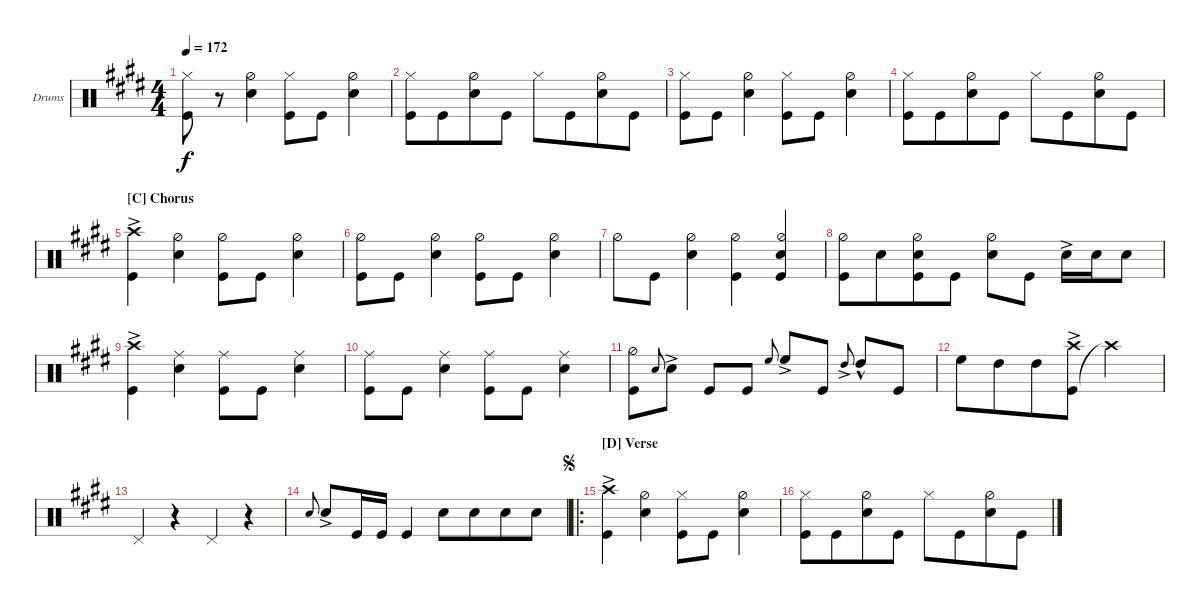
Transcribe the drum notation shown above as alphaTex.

\bracketExtendMode groupsimilarinstruments
\firstSystemTrackNameOrientation horizontal
\otherSystemsTrackNameOrientation horizontal
\track ("Drums" "Drums") {instrument percussion}
\staff {score}
\articulation defaults
\ts (4 4)
\tempo 172
\clef neutral
\ks e
("Hi-Hat (closed)" "Kick (hit)").8{dy f} r.8 ("Hi-Hat (half)" "Snare (hit) 2").4 ("Kick (hit)" "Hi-Hat (closed)").8 "Kick (hit)".8{beam merge} ("Hi-Hat (half)" "Snare (hit) 2").4 |
("Hi-Hat (closed)" "Kick (hit)").8 "Kick (hit)".8{beam merge} ("Hi-Hat (half)" "Snare (hit) 2").8 "Kick (hit)".8 "Hi-Hat (closed)".8 "Kick (hit)".8{beam merge} ("Hi-Hat (half)" "Snare (hit) 2").8 "Kick (hit)".8 |
("Hi-Hat (closed)" "Kick (hit)").8 "Kick (hit)".8{beam merge} ("Hi-Hat (half)" "Snare (hit) 2").4 ("Hi-Hat (closed)" "Kick (hit)").8 "Kick (hit)".8{beam merge} ("Hi-Hat (half)" "Snare (hit) 2").4 |
("Hi-Hat (closed)" "Kick (hit)").8 "Kick (hit)".8{beam merge} ("Hi-Hat (half)" "Snare (hit) 2").8 "Kick (hit)".8 "Hi-Hat (closed)".8 "Kick (hit)".8{beam merge} ("Hi-Hat (half)" "Snare (hit) 2").8 "Kick (hit)".8 |
\section ("C" "Chorus")
\scale
0.333333 ("Kick (hit)" "Crash high (hit)"{ac}).4 ("Snare (hit) 2" "Hi-Hat (half)").4 ("Kick (hit)" "Hi-Hat (half)").8 "Kick (hit)".8{beam merge} ("Hi-Hat (half)" "Snare (hit) 2").4 |
\scale
0.333333 ("Hi-Hat (half)" "Kick (hit)").8 "Kick (hit)".8{beam merge} ("Hi-Hat (half)" "Snare (hit) 2").4 ("Hi-Hat (half)" "Kick (hit)").8 "Kick (hit)".8{beam merge} ("Hi-Hat (half)" "Snare (hit) 2").4 |
\scale
0.333333 "Hi-Hat (half)".8 "Kick (hit)".8{beam merge} ("Hi-Hat (half)" "Snare (hit) 2").4 ("Hi-Hat (half)" "Kick (hit)").4 ("Hi-Hat (half)" "Snare (hit) 2" "Kick (hit)").4 |
\scale
0.333333 ("Kick (hit)" "Hi-Hat (half)").8 "Snare (hit) 2".8{beam merge} ("Kick (hit)" "Hi-Hat (half)" "Snare (hit) 2").8 "Kick (hit)".8 ("Snare (hit) 2" "Hi-Hat (half)").8 "Kick (hit)".8 "Snare (hit) 2"{ac}.16 "Snare (hit) 2".16 "Snare (hit) 2".8 |
\scale
0.333333 ("Kick (hit)" "Crash high (hit)"{ac}).4 ("Snare (hit) 2" "Ride (middle)").4 ("Kick (hit)" "Ride (middle)").8 "Kick (hit)".8 ("Snare (hit) 2" "Ride (middle)").4 |
\scale
0.333333 ("Kick (hit)" "Ride (middle)").8 "Kick (hit)".8 ("Snare (hit) 2" "Ride (middle)").4 ("Kick (hit)" "Ride (middle)").8 "Kick (hit)".8 ("Snare (hit) 2" "Ride (middle)").4 |
\scale
0.333333 ("Hi-Hat (half)" "Kick (hit)").8 "Snare (hit) 2".8{gr onbeat} "Snare (hit) 2"{ac}.8 "Kick (hit)".8 "Kick (hit)".8 "High Floor Tom (hit)".8{gr onbeat} "High Floor Tom (hit)"{ac}.8 "Kick (hit)".8 "High Tom (hit)"{ac}.8{gr onbeat} "High Tom (hit)"{hac}.8 "Kick (hit)".8 |
\scale
0.333333 "High Floor Tom (hit)".8 "High Tom (hit)".8{beam merge} "High Tom (hit)".8 ("Kick (hit)" "Crash high (hit)"{ac}).8 "Crash high (hit)"{t}.2 |
\scale
0.333333 "Pedal Hi-Hat (hit)".4 r.4 "Pedal Hi-Hat (hit)".4 r.4 |
\scale
0.400697 "Snare (hit) 2".8{gr onbeat} "Snare (hit) 2"{ac}.8 "Kick (hit)".16 "Kick (hit)".16 "Kick (hit)".4 "Snare (hit) 2".8 "Snare (hit) 2".8{beam merge} "Snare (hit) 2".8 "Snare (hit) 2".8 |
\ro
\section ("D" "Verse")
\jump segno
("Kick (hit)" "Crash high (hit)"{ac}).4 ("Hi-Hat (half)" "Snare (hit) 2").4 ("Kick (hit)" "Hi-Hat (closed)").8 "Kick (hit)".8{beam merge} ("Hi-Hat (half)" "Snare (hit) 2").4 |
("Hi-Hat (closed)" "Kick (hit)").8 "Kick (hit)".8{beam merge} ("Hi-Hat (half)" "Snare (hit) 2").8 "Kick (hit)".8 "Hi-Hat (closed)".8 "Kick (hit)".8{beam merge} ("Hi-Hat (half)" "Snare (hit) 2").8 "Kick (hit)".8
